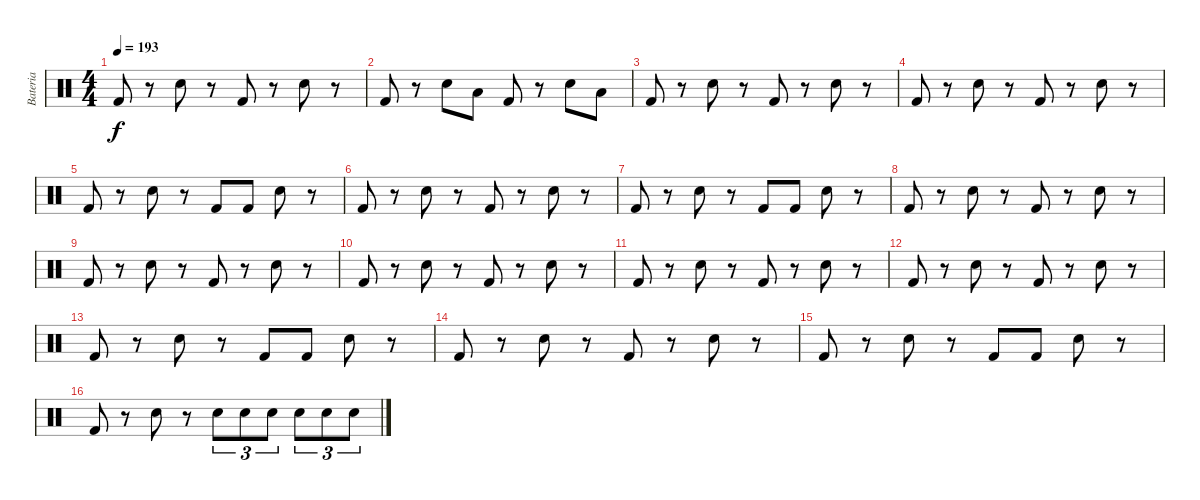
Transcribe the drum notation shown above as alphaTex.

\track ("Bateria" "Bateria") {instrument percussion}
\staff {score}
\articulation defaults
\ts (4 4)
\tempo 193
\clef neutral
\ks c "Kick (hit) 2".8{dy f}
r.8 "Electric Snare (hit)".8 r.8 "Kick (hit) 2".8 r.8 "Electric Snare (hit)".8 r.8 |
"Kick (hit) 2".8 r.8 "Electric Snare (hit)".8 "Low Tom (hit)".8 "Kick (hit) 2".8 r.8 "Electric Snare (hit)".8 "Low Tom (hit)".8 |
"Kick (hit) 2".8 r.8 "Electric Snare (hit)".8 r.8 "Kick (hit) 2".8 r.8 "Electric Snare (hit)".8 r.8 |
"Kick (hit) 2".8 r.8 "Electric Snare (hit)".8 r.8 "Kick (hit) 2".8 r.8 "Electric Snare (hit)".8 r.8 |
"Kick (hit) 2".8 r.8 "Electric Snare (hit)".8 r.8 "Kick (hit) 2".8 "Kick (hit) 2".8 "Electric Snare (hit)".8 r.8 |
"Kick (hit) 2".8 r.8 "Electric Snare (hit)".8 r.8 "Kick (hit) 2".8 r.8 "Electric Snare (hit)".8 r.8 |
"Kick (hit) 2".8 r.8 "Electric Snare (hit)".8 r.8 "Kick (hit) 2".8 "Kick (hit) 2".8 "Electric Snare (hit)".8 r.8 |
"Kick (hit) 2".8 r.8 "Electric Snare (hit)".8 r.8 "Kick (hit) 2".8 r.8 "Electric Snare (hit)".8 r.8 |
"Kick (hit) 2".8 r.8 "Electric Snare (hit)".8 r.8 "Kick (hit) 2".8 r.8 "Electric Snare (hit)".8 r.8 |
"Kick (hit) 2".8 r.8 "Electric Snare (hit)".8 r.8 "Kick (hit) 2".8 r.8 "Electric Snare (hit)".8 r.8 |
"Kick (hit) 2".8 r.8 "Electric Snare (hit)".8 r.8 "Kick (hit) 2".8 r.8 "Electric Snare (hit)".8 r.8 |
"Kick (hit) 2".8 r.8 "Electric Snare (hit)".8 r.8 "Kick (hit) 2".8 r.8 "Electric Snare (hit)".8 r.8 |
"Kick (hit) 2".8 r.8 "Electric Snare (hit)".8 r.8 "Kick (hit) 2".8 "Kick (hit) 2".8 "Electric Snare (hit)".8 r.8 |
"Kick (hit) 2".8 r.8 "Electric Snare (hit)".8 r.8 "Kick (hit) 2".8 r.8 "Electric Snare (hit)".8 r.8 |
"Kick (hit) 2".8 r.8 "Electric Snare (hit)".8 r.8 "Kick (hit) 2".8 "Kick (hit) 2".8 "Electric Snare (hit)".8 r.8 |
"Kick (hit) 2".8 r.8 "Electric Snare (hit)".8 r.8 "Electric Snare (hit)".8{tu (3 2)} "Electric Snare (hit)".8{tu (3 2)} "Electric Snare (hit)".8{tu (3 2)} "Electric Snare (hit)".8{tu (3 2)} "Electric Snare (hit)".8{tu (3 2)} "Electric Snare (hit)".8{tu (3 2)}
